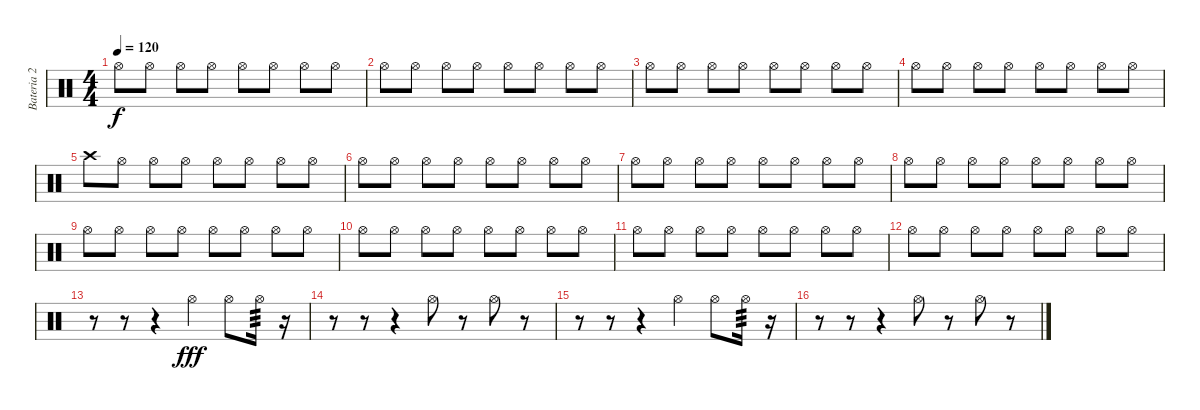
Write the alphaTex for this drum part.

\track ("Bateria 2" "Bateria 2") {instrument percussion}
\staff {score}
\articulation defaults
\ts (4 4)
\tempo 120
\clef neutral
\ks c "Hi-Hat (open)".8{dy f} "Hi-Hat (open)".8 "Hi-Hat (open)".8 "Hi-Hat (open)".8 "Hi-Hat (open)".8 "Hi-Hat (open)".8 "Hi-Hat (open)".8 "Hi-Hat (open)".8
|
"Hi-Hat (open)".8 "Hi-Hat (open)".8 "Hi-Hat (open)".8 "Hi-Hat (open)".8 "Hi-Hat (open)".8 "Hi-Hat (open)".8 "Hi-Hat (open)".8 "Hi-Hat (open)".8 |
"Hi-Hat (open)".8 "Hi-Hat (open)".8 "Hi-Hat (open)".8 "Hi-Hat (open)".8 "Hi-Hat (open)".8 "Hi-Hat (open)".8 "Hi-Hat (open)".8 "Hi-Hat (open)".8 |
"Hi-Hat (open)".8 "Hi-Hat (open)".8 "Hi-Hat (open)".8 "Hi-Hat (open)".8 "Hi-Hat (open)".8 "Hi-Hat (open)".8 "Hi-Hat (open)".8 "Hi-Hat (open)".8 |
"Crash high (hit)".8 "Hi-Hat (open)".8 "Hi-Hat (open)".8 "Hi-Hat (open)".8 "Hi-Hat (open)".8 "Hi-Hat (open)".8 "Hi-Hat (open)".8 "Hi-Hat (open)".8 |
"Hi-Hat (open)".8 "Hi-Hat (open)".8 "Hi-Hat (open)".8 "Hi-Hat (open)".8 "Hi-Hat (open)".8 "Hi-Hat (open)".8 "Hi-Hat (open)".8 "Hi-Hat (open)".8 |
"Hi-Hat (open)".8 "Hi-Hat (open)".8 "Hi-Hat (open)".8 "Hi-Hat (open)".8 "Hi-Hat (open)".8 "Hi-Hat (open)".8 "Hi-Hat (open)".8 "Hi-Hat (open)".8 |
"Hi-Hat (open)".8 "Hi-Hat (open)".8 "Hi-Hat (open)".8 "Hi-Hat (open)".8 "Hi-Hat (open)".8 "Hi-Hat (open)".8 "Hi-Hat (open)".8 "Hi-Hat (open)".8 |
"Hi-Hat (open)".8 "Hi-Hat (open)".8 "Hi-Hat (open)".8 "Hi-Hat (open)".8 "Hi-Hat (open)".8 "Hi-Hat (open)".8 "Hi-Hat (open)".8 "Hi-Hat (open)".8 |
"Hi-Hat (open)".8 "Hi-Hat (open)".8 "Hi-Hat (open)".8 "Hi-Hat (open)".8 "Hi-Hat (open)".8 "Hi-Hat (open)".8 "Hi-Hat (open)".8 "Hi-Hat (open)".8 |
"Hi-Hat (open)".8 "Hi-Hat (open)".8 "Hi-Hat (open)".8 "Hi-Hat (open)".8 "Hi-Hat (open)".8 "Hi-Hat (open)".8 "Hi-Hat (open)".8 "Hi-Hat (open)".8 |
"Hi-Hat (open)".8 "Hi-Hat (open)".8 "Hi-Hat (open)".8 "Hi-Hat (open)".8 "Hi-Hat (open)".8 "Hi-Hat (open)".8 "Hi-Hat (open)".8 "Hi-Hat (open)".8 |
r.8 r.8 r.4 "Hi-Hat (open)".4{dy fff} "Hi-Hat (open)".8 "Hi-Hat (open)".16{tp 3} r.16 |
r.8 r.8 r.4 "Hi-Hat (open)".8 r.8 "Hi-Hat (open)".8 r.8 |
r.8 r.8 r.4 "Hi-Hat (open)".4 "Hi-Hat (open)".8 "Hi-Hat (open)".16{tp 3} r.16 |
r.8 r.8 r.4 "Hi-Hat (open)".8 r.8 "Hi-Hat (open)".8 r.8
